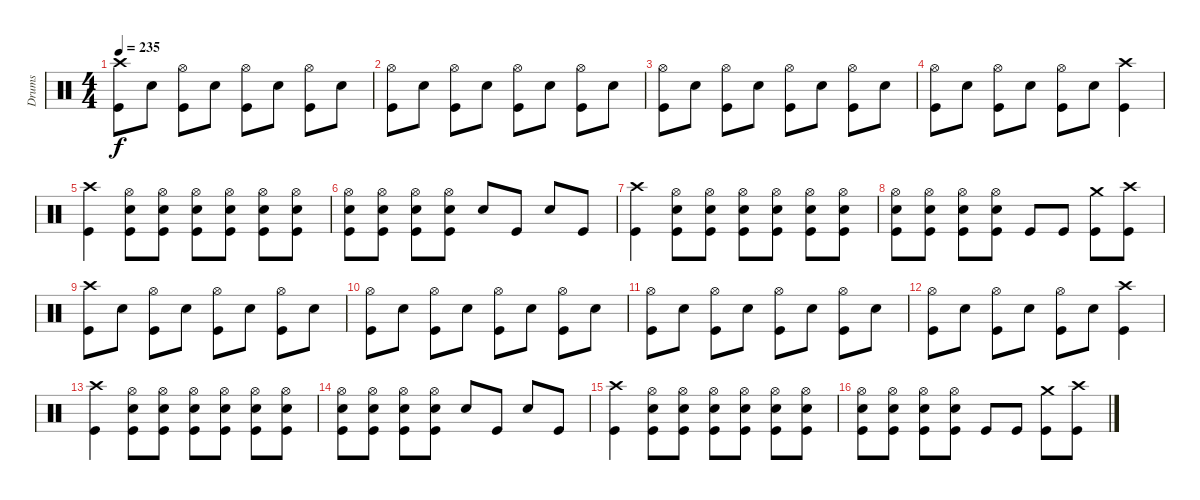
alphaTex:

\track ("Drums" "Drums") {instrument percussion}
\staff {score}
\articulation defaults
\ts (4 4)
\tempo 235
\clef neutral
\ks c
("Crash high (hit)" "Kick (hit)").8{dy f} "Snare (hit) 2".8 ("Hi-Hat (open)" "Kick (hit)").8 "Snare (hit) 2".8 ("Hi-Hat (open)" "Kick (hit)").8 "Snare (hit) 2".8 ("Hi-Hat (open)" "Kick (hit)").8 "Snare (hit) 2".8 |
("Hi-Hat (open)" "Kick (hit)").8 "Snare (hit) 2".8 ("Hi-Hat (open)" "Kick (hit)").8 "Snare (hit) 2".8 ("Hi-Hat (open)" "Kick (hit)").8 "Snare (hit) 2".8 ("Hi-Hat (open)" "Kick (hit)").8 "Snare (hit) 2".8 |
("Hi-Hat (open)" "Kick (hit)").8 "Snare (hit) 2".8 ("Hi-Hat (open)" "Kick (hit)").8 "Snare (hit) 2".8 ("Hi-Hat (open)" "Kick (hit)").8 "Snare (hit) 2".8 ("Hi-Hat (open)" "Kick (hit)").8 "Snare (hit) 2".8 |
("Hi-Hat (open)" "Kick (hit)").8 "Snare (hit) 2".8 ("Hi-Hat (open)" "Kick (hit)").8 "Snare (hit) 2".8 ("Hi-Hat (open)" "Kick (hit)").8 "Snare (hit) 2".8 ("Crash high (hit)" "Kick (hit)").4 |
("Crash high (hit)" "Kick (hit)").4 ("Hi-Hat (open)" "Snare (hit) 2" "Kick (hit)").8 ("Hi-Hat (open)" "Snare (hit) 2" "Kick (hit)").8 ("Hi-Hat (open)" "Snare (hit) 2" "Kick (hit)").8 ("Hi-Hat (open)" "Snare (hit) 2" "Kick (hit)").8 ("Hi-Hat (open)" "Snare (hit) 2" "Kick (hit)").8 ("Hi-Hat (open)" "Snare (hit) 2" "Kick (hit)").8 |
("Hi-Hat (open)" "Snare (hit) 2" "Kick (hit)").8 ("Hi-Hat (open)" "Snare (hit) 2" "Kick (hit)").8 ("Hi-Hat (open)" "Snare (hit) 2" "Kick (hit)").8 ("Hi-Hat (open)" "Snare (hit) 2" "Kick (hit)").8 "Snare (hit) 2".8 "Kick (hit)".8 "Snare (hit) 2".8 "Kick (hit)".8 |
("Crash high (hit)" "Kick (hit)").4 ("Hi-Hat (open)" "Snare (hit) 2" "Kick (hit)").8 ("Hi-Hat (open)" "Snare (hit) 2" "Kick (hit)").8 ("Hi-Hat (open)" "Snare (hit) 2" "Kick (hit)").8 ("Hi-Hat (open)" "Snare (hit) 2" "Kick (hit)").8 ("Hi-Hat (open)" "Snare (hit) 2" "Kick (hit)").8 ("Hi-Hat (open)" "Snare (hit) 2" "Kick (hit)").8 |
("Hi-Hat (open)" "Snare (hit) 2" "Kick (hit)").8 ("Hi-Hat (open)" "Snare (hit) 2" "Kick (hit)").8 ("Hi-Hat (open)" "Snare (hit) 2" "Kick (hit)").8 ("Hi-Hat (open)" "Snare (hit) 2" "Kick (hit)").8 "Kick (hit)".8 "Kick (hit)".8 ("Crash medium (hit)" "Kick (hit)").8 ("Crash high (hit)" "Kick (hit)").8 |
("Crash high (hit)" "Kick (hit)").8 "Snare (hit) 2".8 ("Hi-Hat (open)" "Kick (hit)").8 "Snare (hit) 2".8 ("Hi-Hat (open)" "Kick (hit)").8 "Snare (hit) 2".8 ("Hi-Hat (open)" "Kick (hit)").8 "Snare (hit) 2".8 |
("Hi-Hat (open)" "Kick (hit)").8 "Snare (hit) 2".8 ("Hi-Hat (open)" "Kick (hit)").8 "Snare (hit) 2".8 ("Hi-Hat (open)" "Kick (hit)").8 "Snare (hit) 2".8 ("Hi-Hat (open)" "Kick (hit)").8 "Snare (hit) 2".8 |
("Hi-Hat (open)" "Kick (hit)").8 "Snare (hit) 2".8 ("Hi-Hat (open)" "Kick (hit)").8 "Snare (hit) 2".8 ("Hi-Hat (open)" "Kick (hit)").8 "Snare (hit) 2".8 ("Hi-Hat (open)" "Kick (hit)").8 "Snare (hit) 2".8 |
("Hi-Hat (open)" "Kick (hit)").8 "Snare (hit) 2".8 ("Hi-Hat (open)" "Kick (hit)").8 "Snare (hit) 2".8 ("Hi-Hat (open)" "Kick (hit)").8 "Snare (hit) 2".8 ("Crash high (hit)" "Kick (hit)").4 |
("Crash high (hit)" "Kick (hit)").4 ("Hi-Hat (open)" "Snare (hit) 2" "Kick (hit)").8 ("Hi-Hat (open)" "Snare (hit) 2" "Kick (hit)").8 ("Hi-Hat (open)" "Snare (hit) 2" "Kick (hit)").8 ("Hi-Hat (open)" "Snare (hit) 2" "Kick (hit)").8 ("Hi-Hat (open)" "Snare (hit) 2" "Kick (hit)").8 ("Hi-Hat (open)" "Snare (hit) 2" "Kick (hit)").8 |
("Hi-Hat (open)" "Snare (hit) 2" "Kick (hit)").8 ("Hi-Hat (open)" "Snare (hit) 2" "Kick (hit)").8 ("Hi-Hat (open)" "Snare (hit) 2" "Kick (hit)").8 ("Hi-Hat (open)" "Snare (hit) 2" "Kick (hit)").8 "Snare (hit) 2".8 "Kick (hit)".8 "Snare (hit) 2".8 "Kick (hit)".8 |
("Crash high (hit)" "Kick (hit)").4 ("Hi-Hat (open)" "Snare (hit) 2" "Kick (hit)").8 ("Hi-Hat (open)" "Snare (hit) 2" "Kick (hit)").8 ("Hi-Hat (open)" "Snare (hit) 2" "Kick (hit)").8 ("Hi-Hat (open)" "Snare (hit) 2" "Kick (hit)").8 ("Hi-Hat (open)" "Snare (hit) 2" "Kick (hit)").8 ("Hi-Hat (open)" "Snare (hit) 2" "Kick (hit)").8 |
("Hi-Hat (open)" "Snare (hit) 2" "Kick (hit)").8 ("Hi-Hat (open)" "Snare (hit) 2" "Kick (hit)").8 ("Hi-Hat (open)" "Snare (hit) 2" "Kick (hit)").8 ("Hi-Hat (open)" "Snare (hit) 2" "Kick (hit)").8 "Kick (hit)".8 "Kick (hit)".8 ("Crash medium (hit)" "Kick (hit)").8 ("Crash high (hit)" "Kick (hit)").8
